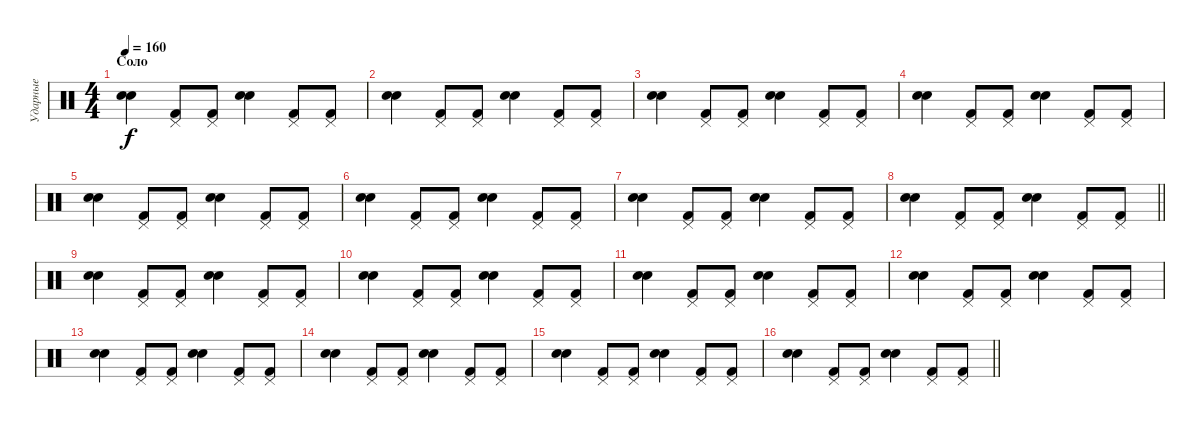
\track ("Ударные" "Ударные") {instrument percussion}
\staff {score}
\articulation defaults
\ts (4 4)
\section ("" "Соло")
\tempo 160
\clef neutral
\ks c
("Snare (hit) 2" "Electric Snare (hit)").4{dy f} ("Kick (hit) 2" "Pedal Hi-Hat (hit)").8 ("Kick (hit) 2" "Pedal Hi-Hat (hit)").8 ("Snare (hit) 2" "Electric Snare (hit)").4 ("Kick (hit) 2" "Pedal Hi-Hat (hit)").8 ("Kick (hit) 2" "Pedal Hi-Hat (hit)").8 |
("Snare (hit) 2" "Electric Snare (hit)").4 ("Kick (hit) 2" "Pedal Hi-Hat (hit)").8 ("Kick (hit) 2" "Pedal Hi-Hat (hit)").8 ("Snare (hit) 2" "Electric Snare (hit)").4 ("Kick (hit) 2" "Pedal Hi-Hat (hit)").8 ("Kick (hit) 2" "Pedal Hi-Hat (hit)").8 |
("Snare (hit) 2" "Electric Snare (hit)").4 ("Kick (hit) 2" "Pedal Hi-Hat (hit)").8 ("Kick (hit) 2" "Pedal Hi-Hat (hit)").8 ("Snare (hit) 2" "Electric Snare (hit)").4 ("Kick (hit) 2" "Pedal Hi-Hat (hit)").8 ("Kick (hit) 2" "Pedal Hi-Hat (hit)").8 |
("Snare (hit) 2" "Electric Snare (hit)").4 ("Kick (hit) 2" "Pedal Hi-Hat (hit)").8 ("Kick (hit) 2" "Pedal Hi-Hat (hit)").8 ("Snare (hit) 2" "Electric Snare (hit)").4 ("Kick (hit) 2" "Pedal Hi-Hat (hit)").8 ("Kick (hit) 2" "Pedal Hi-Hat (hit)").8 |
("Snare (hit) 2" "Electric Snare (hit)").4 ("Kick (hit) 2" "Pedal Hi-Hat (hit)").8 ("Kick (hit) 2" "Pedal Hi-Hat (hit)").8 ("Snare (hit) 2" "Electric Snare (hit)").4 ("Kick (hit) 2" "Pedal Hi-Hat (hit)").8 ("Kick (hit) 2" "Pedal Hi-Hat (hit)").8 |
("Snare (hit) 2" "Electric Snare (hit)").4 ("Kick (hit) 2" "Pedal Hi-Hat (hit)").8 ("Kick (hit) 2" "Pedal Hi-Hat (hit)").8 ("Snare (hit) 2" "Electric Snare (hit)").4 ("Kick (hit) 2" "Pedal Hi-Hat (hit)").8 ("Kick (hit) 2" "Pedal Hi-Hat (hit)").8 |
("Snare (hit) 2" "Electric Snare (hit)").4 ("Kick (hit) 2" "Pedal Hi-Hat (hit)").8 ("Kick (hit) 2" "Pedal Hi-Hat (hit)").8 ("Snare (hit) 2" "Electric Snare (hit)").4 ("Kick (hit) 2" "Pedal Hi-Hat (hit)").8 ("Kick (hit) 2" "Pedal Hi-Hat (hit)").8 |
\barLineRight lightlight
("Snare (hit) 2" "Electric Snare (hit)").4 ("Kick (hit) 2" "Pedal Hi-Hat (hit)").8 ("Kick (hit) 2" "Pedal Hi-Hat (hit)").8 ("Snare (hit) 2" "Electric Snare (hit)").4 ("Kick (hit) 2" "Pedal Hi-Hat (hit)").8 ("Kick (hit) 2" "Pedal Hi-Hat (hit)").8 |
("Snare (hit) 2" "Electric Snare (hit)").4 ("Kick (hit) 2" "Pedal Hi-Hat (hit)").8 ("Kick (hit) 2" "Pedal Hi-Hat (hit)").8 ("Snare (hit) 2" "Electric Snare (hit)").4 ("Kick (hit) 2" "Pedal Hi-Hat (hit)").8 ("Kick (hit) 2" "Pedal Hi-Hat (hit)").8 |
("Snare (hit) 2" "Electric Snare (hit)").4 ("Kick (hit) 2" "Pedal Hi-Hat (hit)").8 ("Kick (hit) 2" "Pedal Hi-Hat (hit)").8 ("Snare (hit) 2" "Electric Snare (hit)").4 ("Kick (hit) 2" "Pedal Hi-Hat (hit)").8 ("Kick (hit) 2" "Pedal Hi-Hat (hit)").8 |
("Snare (hit) 2" "Electric Snare (hit)").4 ("Kick (hit) 2" "Pedal Hi-Hat (hit)").8 ("Kick (hit) 2" "Pedal Hi-Hat (hit)").8 ("Snare (hit) 2" "Electric Snare (hit)").4 ("Kick (hit) 2" "Pedal Hi-Hat (hit)").8 ("Kick (hit) 2" "Pedal Hi-Hat (hit)").8 |
("Snare (hit) 2" "Electric Snare (hit)").4 ("Kick (hit) 2" "Pedal Hi-Hat (hit)").8 ("Kick (hit) 2" "Pedal Hi-Hat (hit)").8 ("Snare (hit) 2" "Electric Snare (hit)").4 ("Kick (hit) 2" "Pedal Hi-Hat (hit)").8 ("Kick (hit) 2" "Pedal Hi-Hat (hit)").8 |
("Snare (hit) 2" "Electric Snare (hit)").4 ("Kick (hit) 2" "Pedal Hi-Hat (hit)").8 ("Kick (hit) 2" "Pedal Hi-Hat (hit)").8 ("Snare (hit) 2" "Electric Snare (hit)").4 ("Kick (hit) 2" "Pedal Hi-Hat (hit)").8 ("Kick (hit) 2" "Pedal Hi-Hat (hit)").8 |
("Snare (hit) 2" "Electric Snare (hit)").4 ("Kick (hit) 2" "Pedal Hi-Hat (hit)").8 ("Kick (hit) 2" "Pedal Hi-Hat (hit)").8 ("Snare (hit) 2" "Electric Snare (hit)").4 ("Kick (hit) 2" "Pedal Hi-Hat (hit)").8 ("Kick (hit) 2" "Pedal Hi-Hat (hit)").8 |
("Snare (hit) 2" "Electric Snare (hit)").4 ("Kick (hit) 2" "Pedal Hi-Hat (hit)").8 ("Kick (hit) 2" "Pedal Hi-Hat (hit)").8 ("Snare (hit) 2" "Electric Snare (hit)").4 ("Kick (hit) 2" "Pedal Hi-Hat (hit)").8 ("Kick (hit) 2" "Pedal Hi-Hat (hit)").8 |
\barLineRight lightlight
("Snare (hit) 2" "Electric Snare (hit)").4 ("Kick (hit) 2" "Pedal Hi-Hat (hit)").8 ("Kick (hit) 2" "Pedal Hi-Hat (hit)").8 ("Snare (hit) 2" "Electric Snare (hit)").4 ("Kick (hit) 2" "Pedal Hi-Hat (hit)").8 ("Kick (hit) 2" "Pedal Hi-Hat (hit)").8
